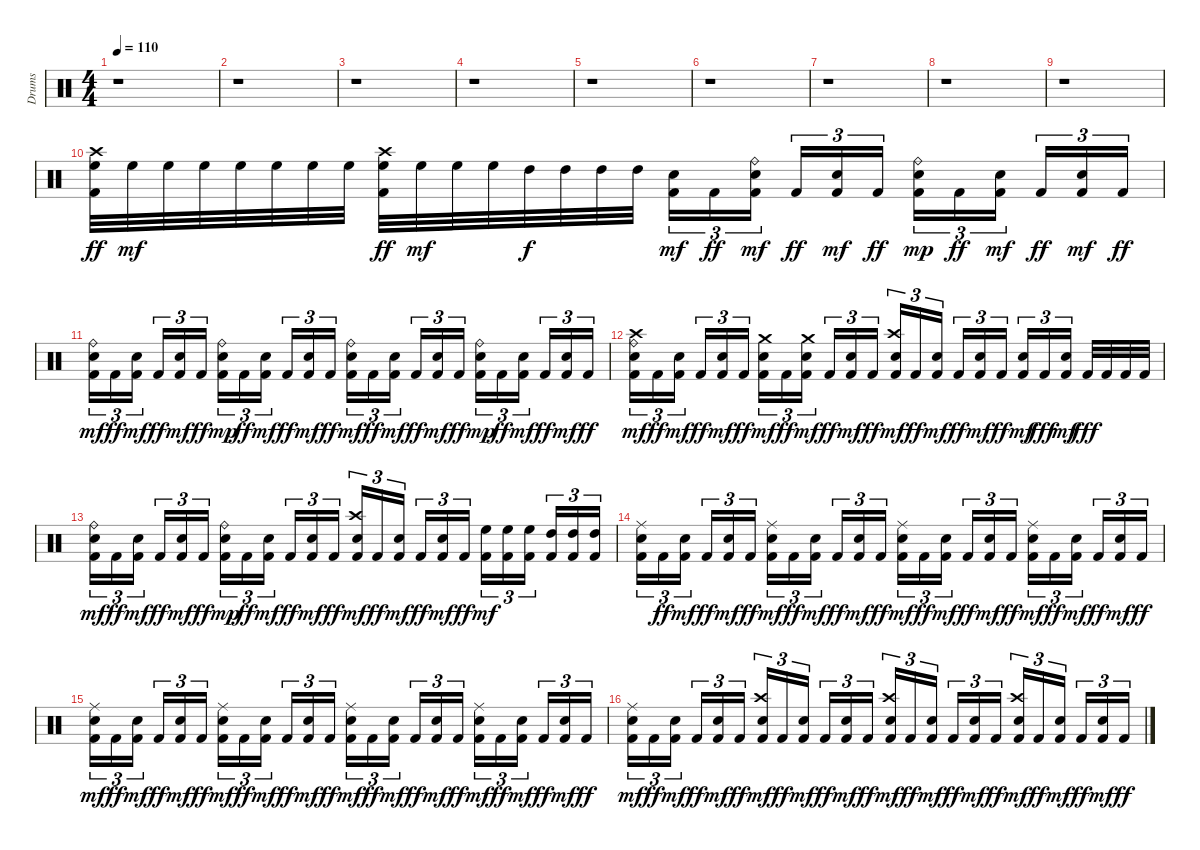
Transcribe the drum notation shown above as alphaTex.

\track ("Drums" "Drums") {instrument percussion}
\staff {score}
\articulation defaults
\ts (4 4)
\tempo 110
\clef neutral
\ks c
r.1{dy ff} |
r.1 |
r.1 |
r.1 |
r.1 |
r.1 |
r.1 |
r.1 |
r.1 |
("Kick (hit) 2" "High Floor Tom (hit)" "Crash high (hit)").32 "High Floor Tom (hit)".32{dy mf} "High Floor Tom (hit)".32 "High Floor Tom (hit)".32 "High Floor Tom (hit)".32 "High Floor Tom (hit)".32 "High Floor Tom (hit)".32 "High Floor Tom (hit)".32 ("Kick (hit) 2" "High Floor Tom (hit)" "Crash high (hit)").32{dy ff} "High Floor Tom (hit)".32{dy mf} "High Floor Tom (hit)".32 "High Floor Tom (hit)".32 "High Tom (hit)".32{dy f} "High Tom (hit)".32 "High Tom (hit)".32 "High Tom (hit)".32 ("Kick (hit) 2" "Electric Snare (hit)").16{tu (3 2) dy mf} "Kick (hit) 2".16{tu (3 2) dy ff} ("Kick (hit) 2" "Electric Snare (hit)" "Ride (bell)").16{tu (3 2) dy mf beam splitsecondary} "Kick (hit) 2".16{tu (3 2) dy ff} ("Kick (hit) 2" "Electric Snare (hit)").16{tu (3 2) dy mf} "Kick (hit) 2".16{tu (3 2) dy ff} ("Kick (hit) 2" "Electric Snare (hit)" "Ride (bell)").16{tu (3 2) dy mp} "Kick (hit) 2".16{tu (3 2) dy ff} ("Kick (hit) 2" "Electric Snare (hit)").16{tu (3 2) dy mf beam splitsecondary} "Kick (hit) 2".16{tu (3 2) dy ff} ("Kick (hit) 2" "Electric Snare (hit)").16{tu (3 2) dy mf} "Kick (hit) 2".16{tu (3 2) dy ff} |
("Kick (hit) 2" "Electric Snare (hit)" "Ride (bell)").16{tu (3 2) dy mf} "Kick (hit) 2".16{tu (3 2) dy ff} ("Kick (hit) 2" "Electric Snare (hit)").16{tu (3 2) dy mf beam splitsecondary} "Kick (hit) 2".16{tu (3 2) dy ff} ("Kick (hit) 2" "Electric Snare (hit)").16{tu (3 2) dy mf} "Kick (hit) 2".16{tu (3 2) dy ff} ("Kick (hit) 2" "Electric Snare (hit)" "Ride (bell)").16{tu (3 2) dy mp} "Kick (hit) 2".16{tu (3 2) dy ff} ("Kick (hit) 2" "Electric Snare (hit)").16{tu (3 2) dy mf beam splitsecondary} "Kick (hit) 2".16{tu (3 2) dy ff} ("Kick (hit) 2" "Electric Snare (hit)").16{tu (3 2) dy mf} "Kick (hit) 2".16{tu (3 2) dy ff} ("Kick (hit) 2" "Electric Snare (hit)" "Ride (bell)").16{tu (3 2) dy mf} "Kick (hit) 2".16{tu (3 2) dy ff} ("Kick (hit) 2" "Electric Snare (hit)").16{tu (3 2) dy mf beam splitsecondary} "Kick (hit) 2".16{tu (3 2) dy ff} ("Kick (hit) 2" "Electric Snare (hit)").16{tu (3 2) dy mf} "Kick (hit) 2".16{tu (3 2) dy ff} ("Kick (hit) 2" "Electric Snare (hit)" "Ride (bell)").16{tu (3 2) dy mp} "Kick (hit) 2".16{tu (3 2) dy ff} ("Kick (hit) 2" "Electric Snare (hit)").16{tu (3 2) dy mf beam splitsecondary} "Kick (hit) 2".16{tu (3 2) dy ff} ("Kick (hit) 2" "Electric Snare (hit)").16{tu (3 2) dy mf} "Kick (hit) 2".16{tu (3 2) dy ff} |
("Kick (hit) 2" "Electric Snare (hit)" "Crash high (hit)" "Ride (bell)").16{tu (3 2) dy mf} "Kick (hit) 2".16{tu (3 2) dy ff} ("Kick (hit) 2" "Electric Snare (hit)").16{tu (3 2) dy mf beam splitsecondary} "Kick (hit) 2".16{tu (3 2) dy ff} ("Kick (hit) 2" "Electric Snare (hit)").16{tu (3 2) dy mf} "Kick (hit) 2".16{tu (3 2) dy ff} ("Kick (hit) 2" "Electric Snare (hit)" "Crash medium (hit)").16{tu (3 2) dy mf} "Kick (hit) 2".16{tu (3 2) dy ff} ("Kick (hit) 2" "Electric Snare (hit)" "Crash medium (hit)").16{tu (3 2) dy mf beam splitsecondary} "Kick (hit) 2".16{tu (3 2) dy ff} ("Kick (hit) 2" "Electric Snare (hit)").16{tu (3 2) dy mf} "Kick (hit) 2".16{tu (3 2) dy ff} ("Kick (hit) 2" "Electric Snare (hit)" "Crash high (hit)").16{tu (3 2) dy mf} "Kick (hit) 2".16{tu (3 2) dy ff} ("Kick (hit) 2" "Electric Snare (hit)").16{tu (3 2) dy mf beam splitsecondary} "Kick (hit) 2".16{tu (3 2) dy ff} ("Kick (hit) 2" "Electric Snare (hit)").16{tu (3 2) dy mf} "Kick (hit) 2".16{tu (3 2) dy ff} ("Kick (hit) 2" "Electric Snare (hit)").16{tu (3 2) dy mf} "Kick (hit) 2".16{tu (3 2) dy fff} ("Kick (hit) 2" "Electric Snare (hit)").16{tu (3 2) dy mf beam splitsecondary} "Kick (hit) 2".32{dy fff} "Kick (hit) 2".32 "Kick (hit) 2".32 "Kick (hit) 2".32 |
("Kick (hit) 2" "Electric Snare (hit)" "Ride (bell)").16{tu (3 2) dy mf} "Kick (hit) 2".16{tu (3 2) dy ff} ("Kick (hit) 2" "Electric Snare (hit)").16{tu (3 2) dy mf beam splitsecondary} "Kick (hit) 2".16{tu (3 2) dy ff} ("Kick (hit) 2" "Electric Snare (hit)").16{tu (3 2) dy mf} "Kick (hit) 2".16{tu (3 2) dy ff} ("Kick (hit) 2" "Electric Snare (hit)" "Ride (bell)").16{tu (3 2) dy mp} "Kick (hit) 2".16{tu (3 2) dy ff} ("Kick (hit) 2" "Electric Snare (hit)").16{tu (3 2) dy mf beam splitsecondary} "Kick (hit) 2".16{tu (3 2) dy ff} ("Kick (hit) 2" "Electric Snare (hit)").16{tu (3 2) dy mf} "Kick (hit) 2".16{tu (3 2) dy ff} ("Kick (hit) 2" "Electric Snare (hit)" "Crash high (hit)").16{tu (3 2) dy mf} "Kick (hit) 2".16{tu (3 2) dy ff} ("Kick (hit) 2" "Electric Snare (hit)").16{tu (3 2) dy mf beam splitsecondary} "Kick (hit) 2".16{tu (3 2) dy ff} ("Kick (hit) 2" "Electric Snare (hit)").16{tu (3 2) dy mf} "Kick (hit) 2".16{tu (3 2) dy ff} ("Kick (hit) 2" "High Floor Tom (hit)").16{tu (3 2) dy mf} ("Kick (hit) 2" "High Floor Tom (hit)").16{tu (3 2)} ("Kick (hit) 2" "High Floor Tom (hit)").16{tu (3 2) beam splitsecondary} ("Kick (hit) 2" "High Tom (hit)").16{tu (3 2)} ("Kick (hit) 2" "High Tom (hit)").16{tu (3 2)} ("Kick (hit) 2" "High Tom (hit)").16{tu (3 2)} |
("Kick (hit) 2" "Electric Snare (hit)" "Ride (middle)").16{tu (3 2)} "Kick (hit) 2".16{tu (3 2) dy ff} ("Kick (hit) 2" "Electric Snare (hit)").16{tu (3 2) dy mf beam splitsecondary} "Kick (hit) 2".16{tu (3 2) dy ff} ("Kick (hit) 2" "Electric Snare (hit)").16{tu (3 2) dy mf} "Kick (hit) 2".16{tu (3 2) dy ff} ("Kick (hit) 2" "Electric Snare (hit)" "Ride (middle)").16{tu (3 2) dy mf} "Kick (hit) 2".16{tu (3 2) dy ff} ("Kick (hit) 2" "Electric Snare (hit)").16{tu (3 2) dy mf beam splitsecondary} "Kick (hit) 2".16{tu (3 2) dy ff} ("Kick (hit) 2" "Electric Snare (hit)").16{tu (3 2) dy mf} "Kick (hit) 2".16{tu (3 2) dy ff} ("Kick (hit) 2" "Electric Snare (hit)" "Ride (middle)").16{tu (3 2) dy mf} "Kick (hit) 2".16{tu (3 2) dy ff} ("Kick (hit) 2" "Electric Snare (hit)").16{tu (3 2) dy mf beam splitsecondary} "Kick (hit) 2".16{tu (3 2) dy ff} ("Kick (hit) 2" "Electric Snare (hit)").16{tu (3 2) dy mf} "Kick (hit) 2".16{tu (3 2) dy ff} ("Kick (hit) 2" "Electric Snare (hit)" "Ride (middle)").16{tu (3 2) dy mf} "Kick (hit) 2".16{tu (3 2) dy ff} ("Kick (hit) 2" "Electric Snare (hit)").16{tu (3 2) dy mf beam splitsecondary} "Kick (hit) 2".16{tu (3 2) dy ff} ("Kick (hit) 2" "Electric Snare (hit)").16{tu (3 2) dy mf} "Kick (hit) 2".16{tu (3 2) dy ff} |
("Kick (hit) 2" "Electric Snare (hit)" "Ride (middle)").16{tu (3 2) dy mf} "Kick (hit) 2".16{tu (3 2) dy ff} ("Kick (hit) 2" "Electric Snare (hit)").16{tu (3 2) dy mf beam splitsecondary} "Kick (hit) 2".16{tu (3 2) dy ff} ("Kick (hit) 2" "Electric Snare (hit)").16{tu (3 2) dy mf} "Kick (hit) 2".16{tu (3 2) dy ff} ("Kick (hit) 2" "Electric Snare (hit)" "Ride (middle)").16{tu (3 2) dy mf} "Kick (hit) 2".16{tu (3 2) dy ff} ("Kick (hit) 2" "Electric Snare (hit)").16{tu (3 2) dy mf beam splitsecondary} "Kick (hit) 2".16{tu (3 2) dy ff} ("Kick (hit) 2" "Electric Snare (hit)").16{tu (3 2) dy mf} "Kick (hit) 2".16{tu (3 2) dy ff} ("Kick (hit) 2" "Electric Snare (hit)" "Ride (middle)").16{tu (3 2) dy mf} "Kick (hit) 2".16{tu (3 2) dy ff} ("Kick (hit) 2" "Electric Snare (hit)").16{tu (3 2) dy mf beam splitsecondary} "Kick (hit) 2".16{tu (3 2) dy ff} ("Kick (hit) 2" "Electric Snare (hit)").16{tu (3 2) dy mf} "Kick (hit) 2".16{tu (3 2) dy ff} ("Kick (hit) 2" "Electric Snare (hit)" "Ride (middle)").16{tu (3 2) dy mf} "Kick (hit) 2".16{tu (3 2) dy ff} ("Kick (hit) 2" "Electric Snare (hit)").16{tu (3 2) dy mf beam splitsecondary} "Kick (hit) 2".16{tu (3 2) dy ff} ("Kick (hit) 2" "Electric Snare (hit)").16{tu (3 2) dy mf} "Kick (hit) 2".16{tu (3 2) dy ff} |
("Kick (hit) 2" "Electric Snare (hit)" "Ride (middle)").16{tu (3 2) dy mf} "Kick (hit) 2".16{tu (3 2) dy ff} ("Kick (hit) 2" "Electric Snare (hit)").16{tu (3 2) dy mf beam splitsecondary} "Kick (hit) 2".16{tu (3 2) dy ff} ("Kick (hit) 2" "Electric Snare (hit)").16{tu (3 2) dy mf} "Kick (hit) 2".16{tu (3 2) dy ff} ("Kick (hit) 2" "Electric Snare (hit)" "Crash high (hit)").16{tu (3 2) dy mf} "Kick (hit) 2".16{tu (3 2) dy ff} ("Kick (hit) 2" "Electric Snare (hit)").16{tu (3 2) dy mf beam splitsecondary} "Kick (hit) 2".16{tu (3 2) dy ff} ("Kick (hit) 2" "Electric Snare (hit)").16{tu (3 2) dy mf} "Kick (hit) 2".16{tu (3 2) dy ff} ("Kick (hit) 2" "Electric Snare (hit)" "Crash high (hit)").16{tu (3 2) dy mf} "Kick (hit) 2".16{tu (3 2) dy ff} ("Kick (hit) 2" "Electric Snare (hit)").16{tu (3 2) dy mf beam splitsecondary} "Kick (hit) 2".16{tu (3 2) dy ff} ("Kick (hit) 2" "Electric Snare (hit)").16{tu (3 2) dy mf} "Kick (hit) 2".16{tu (3 2) dy ff} ("Kick (hit) 2" "Electric Snare (hit)" "Crash high (hit)").16{tu (3 2) dy mf} "Kick (hit) 2".16{tu (3 2) dy ff} ("Kick (hit) 2" "Electric Snare (hit)").16{tu (3 2) dy mf beam splitsecondary} "Kick (hit) 2".16{tu (3 2) dy ff} ("Kick (hit) 2" "Electric Snare (hit)").16{tu (3 2) dy mf} "Kick (hit) 2".16{tu (3 2) dy ff}
